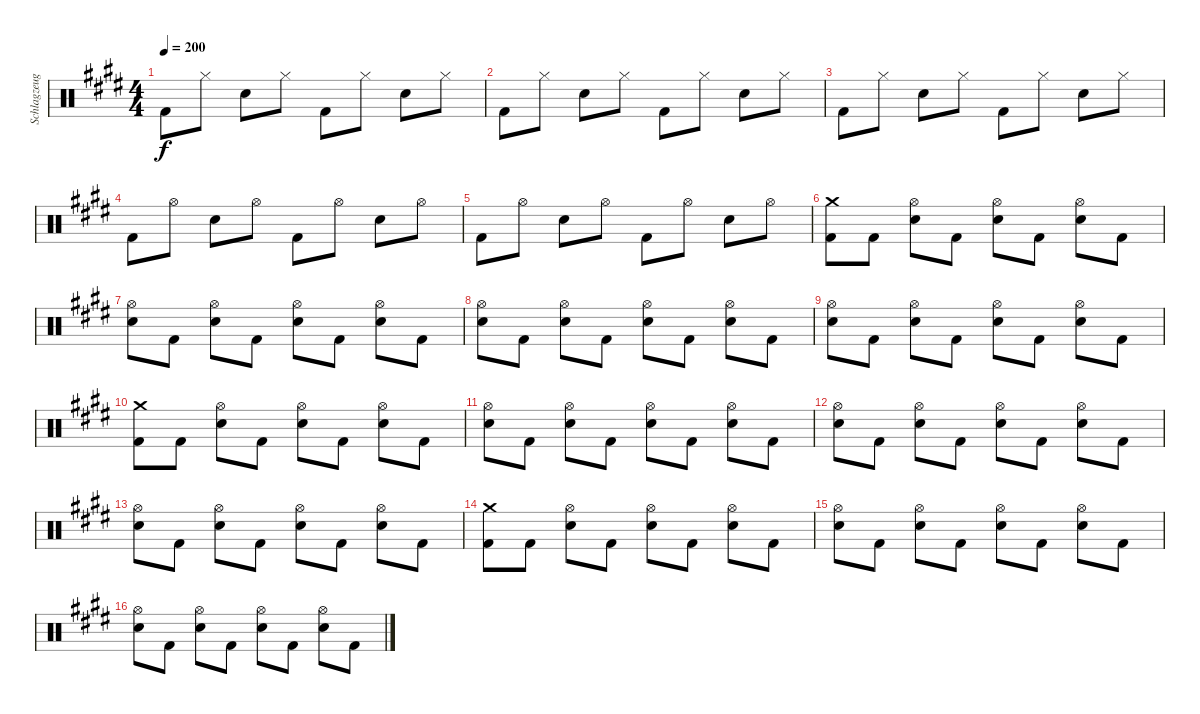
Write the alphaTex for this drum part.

\track ("Schlagzeug" "Schlagzeug") {instrument percussion}
\staff {score}
\articulation defaults
\ts (4 4)
\tempo 200
\clef neutral
\ks e "Kick (hit) 2".8{dy f} "Hi-Hat (closed)".8 "Snare (hit) 2".8 "Hi-Hat (closed)".8 "Kick (hit) 2".8 "Hi-Hat (closed)".8 "Snare (hit) 2".8 "Hi-Hat (closed)".8
|
"Kick (hit) 2".8 "Hi-Hat (closed)".8 "Snare (hit) 2".8 "Hi-Hat (closed)".8 "Kick (hit) 2".8 "Hi-Hat (closed)".8 "Snare (hit) 2".8 "Hi-Hat (closed)".8 |
"Kick (hit) 2".8 "Hi-Hat (closed)".8 "Snare (hit) 2".8 "Hi-Hat (closed)".8 "Kick (hit) 2".8 "Hi-Hat (closed)".8 "Snare (hit) 2".8 "Hi-Hat (closed)".8 |
"Kick (hit) 2".8 "Hi-Hat (open)".8 "Snare (hit) 2".8 "Hi-Hat (open)".8 "Kick (hit) 2".8 "Hi-Hat (open)".8 "Snare (hit) 2".8 "Hi-Hat (open)".8 |
"Kick (hit) 2".8 "Hi-Hat (open)".8 "Snare (hit) 2".8 "Hi-Hat (open)".8 "Kick (hit) 2".8 "Hi-Hat (open)".8 "Snare (hit) 2".8 "Hi-Hat (open)".8 |
("Crash medium (hit)" "Kick (hit) 2").8 "Kick (hit) 2".8 ("Hi-Hat (open)" "Snare (hit) 2").8 "Kick (hit) 2".8 ("Hi-Hat (open)" "Snare (hit) 2").8 "Kick (hit) 2".8 ("Hi-Hat (open)" "Snare (hit) 2").8 "Kick (hit) 2".8 |
("Hi-Hat (open)" "Snare (hit) 2").8 "Kick (hit) 2".8 ("Hi-Hat (open)" "Snare (hit) 2").8 "Kick (hit) 2".8 ("Hi-Hat (open)" "Snare (hit) 2").8 "Kick (hit) 2".8 ("Hi-Hat (open)" "Snare (hit) 2").8 "Kick (hit) 2".8 |
("Hi-Hat (open)" "Snare (hit) 2").8 "Kick (hit) 2".8 ("Hi-Hat (open)" "Snare (hit) 2").8 "Kick (hit) 2".8 ("Hi-Hat (open)" "Snare (hit) 2").8 "Kick (hit) 2".8 ("Hi-Hat (open)" "Snare (hit) 2").8 "Kick (hit) 2".8 |
("Hi-Hat (open)" "Snare (hit) 2").8 "Kick (hit) 2".8 ("Hi-Hat (open)" "Snare (hit) 2").8 "Kick (hit) 2".8 ("Hi-Hat (open)" "Snare (hit) 2").8 "Kick (hit) 2".8 ("Hi-Hat (open)" "Snare (hit) 2").8 "Kick (hit) 2".8 |
("Crash medium (hit)" "Kick (hit) 2").8 "Kick (hit) 2".8 ("Hi-Hat (open)" "Snare (hit) 2").8 "Kick (hit) 2".8 ("Hi-Hat (open)" "Snare (hit) 2").8 "Kick (hit) 2".8 ("Hi-Hat (open)" "Snare (hit) 2").8 "Kick (hit) 2".8 |
("Hi-Hat (open)" "Snare (hit) 2").8 "Kick (hit) 2".8 ("Hi-Hat (open)" "Snare (hit) 2").8 "Kick (hit) 2".8 ("Hi-Hat (open)" "Snare (hit) 2").8 "Kick (hit) 2".8 ("Hi-Hat (open)" "Snare (hit) 2").8 "Kick (hit) 2".8 |
("Hi-Hat (open)" "Snare (hit) 2").8 "Kick (hit) 2".8 ("Hi-Hat (open)" "Snare (hit) 2").8 "Kick (hit) 2".8 ("Hi-Hat (open)" "Snare (hit) 2").8 "Kick (hit) 2".8 ("Hi-Hat (open)" "Snare (hit) 2").8 "Kick (hit) 2".8 |
("Hi-Hat (open)" "Snare (hit) 2").8 "Kick (hit) 2".8 ("Hi-Hat (open)" "Snare (hit) 2").8 "Kick (hit) 2".8 ("Hi-Hat (open)" "Snare (hit) 2").8 "Kick (hit) 2".8 ("Hi-Hat (open)" "Snare (hit) 2").8 "Kick (hit) 2".8 |
("Crash medium (hit)" "Kick (hit) 2").8 "Kick (hit) 2".8 ("Hi-Hat (open)" "Snare (hit) 2").8 "Kick (hit) 2".8 ("Hi-Hat (open)" "Snare (hit) 2").8 "Kick (hit) 2".8 ("Hi-Hat (open)" "Snare (hit) 2").8 "Kick (hit) 2".8 |
("Hi-Hat (open)" "Snare (hit) 2").8 "Kick (hit) 2".8 ("Hi-Hat (open)" "Snare (hit) 2").8 "Kick (hit) 2".8 ("Hi-Hat (open)" "Snare (hit) 2").8 "Kick (hit) 2".8 ("Hi-Hat (open)" "Snare (hit) 2").8 "Kick (hit) 2".8 |
("Hi-Hat (open)" "Snare (hit) 2").8 "Kick (hit) 2".8 ("Hi-Hat (open)" "Snare (hit) 2").8 "Kick (hit) 2".8 ("Hi-Hat (open)" "Snare (hit) 2").8 "Kick (hit) 2".8 ("Hi-Hat (open)" "Snare (hit) 2").8 "Kick (hit) 2".8
